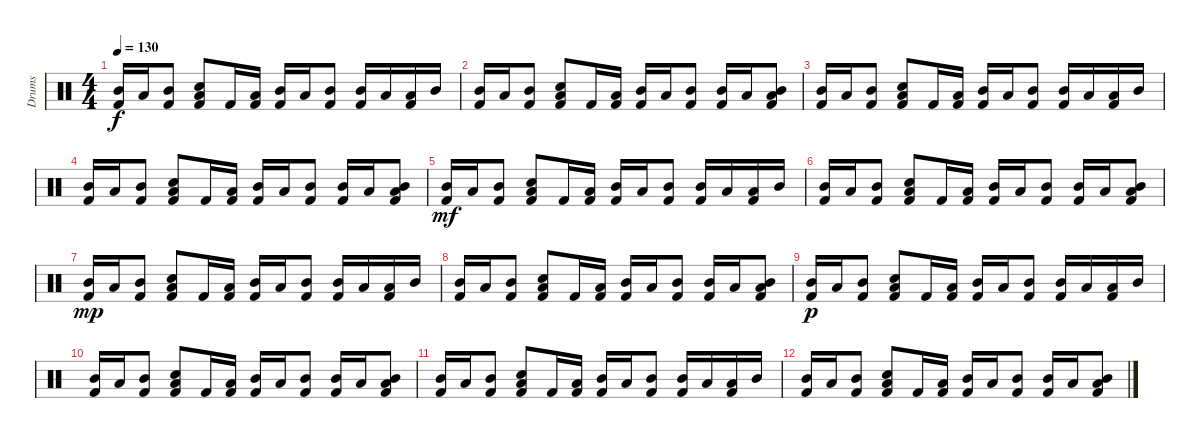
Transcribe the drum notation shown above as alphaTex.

\track ("Drums" "Drums") {instrument percussion}
\staff {score}
\articulation defaults
\ts (4 4)
\tempo 130
\clef neutral
\ks c
("Mid Tom (hit)" "Kick (hit) 2").16{dy f} "Low Tom (hit)".16 ("Mid Tom (hit)" "Kick (hit) 2").8 ("Electric Snare (hit)" "Low Floor Tom (hit)" "Kick (hit) 2").8 "Kick (hit) 2".16 ("Low Floor Tom (hit)" "Kick (hit) 2").16 ("Mid Tom (hit)" "Kick (hit) 2").16 "Low Tom (hit)".16 ("Mid Tom (hit)" "Kick (hit) 2").8 ("Mid Tom (hit)" "Kick (hit) 2").16 "Low Tom (hit)".16 ("Low Floor Tom (hit)" "Kick (hit) 2").16 "Mid Tom (hit)".16 |
("Mid Tom (hit)" "Kick (hit) 2").16 "Low Tom (hit)".16 ("Mid Tom (hit)" "Kick (hit) 2").8 ("Electric Snare (hit)" "Low Floor Tom (hit)" "Kick (hit) 2").8 "Kick (hit) 2".16 ("Low Floor Tom (hit)" "Kick (hit) 2").16 ("Mid Tom (hit)" "Kick (hit) 2").16 "Low Tom (hit)".16 ("Mid Tom (hit)" "Kick (hit) 2").8 ("Mid Tom (hit)" "Kick (hit) 2").16 "Low Tom (hit)".16 ("Mid Tom (hit)" "Low Floor Tom (hit)" "Kick (hit) 2").8 |
("Mid Tom (hit)" "Kick (hit) 2").16 "Low Tom (hit)".16 ("Mid Tom (hit)" "Kick (hit) 2").8 ("Electric Snare (hit)" "Low Floor Tom (hit)" "Kick (hit) 2").8 "Kick (hit) 2".16 ("Low Floor Tom (hit)" "Kick (hit) 2").16 ("Mid Tom (hit)" "Kick (hit) 2").16 "Low Tom (hit)".16 ("Mid Tom (hit)" "Kick (hit) 2").8 ("Mid Tom (hit)" "Kick (hit) 2").16 "Low Tom (hit)".16 ("Low Floor Tom (hit)" "Kick (hit) 2").16 "Mid Tom (hit)".16 |
("Mid Tom (hit)" "Kick (hit) 2").16 "Low Tom (hit)".16 ("Mid Tom (hit)" "Kick (hit) 2").8 ("Electric Snare (hit)" "Low Floor Tom (hit)" "Kick (hit) 2").8 "Kick (hit) 2".16 ("Low Floor Tom (hit)" "Kick (hit) 2").16 ("Mid Tom (hit)" "Kick (hit) 2").16 "Low Tom (hit)".16 ("Mid Tom (hit)" "Kick (hit) 2").8 ("Mid Tom (hit)" "Kick (hit) 2").16 "Low Tom (hit)".16 ("Mid Tom (hit)" "Low Floor Tom (hit)" "Kick (hit) 2").8 |
("Mid Tom (hit)" "Kick (hit) 2").16{dy mf} "Low Tom (hit)".16 ("Mid Tom (hit)" "Kick (hit) 2").8 ("Electric Snare (hit)" "Low Floor Tom (hit)" "Kick (hit) 2").8 "Kick (hit) 2".16 ("Low Floor Tom (hit)" "Kick (hit) 2").16 ("Mid Tom (hit)" "Kick (hit) 2").16 "Low Tom (hit)".16 ("Mid Tom (hit)" "Kick (hit) 2").8 ("Mid Tom (hit)" "Kick (hit) 2").16 "Low Tom (hit)".16 ("Low Floor Tom (hit)" "Kick (hit) 2").16 "Mid Tom (hit)".16 |
("Mid Tom (hit)" "Kick (hit) 2").16 "Low Tom (hit)".16 ("Mid Tom (hit)" "Kick (hit) 2").8 ("Electric Snare (hit)" "Low Floor Tom (hit)" "Kick (hit) 2").8 "Kick (hit) 2".16 ("Low Floor Tom (hit)" "Kick (hit) 2").16 ("Mid Tom (hit)" "Kick (hit) 2").16 "Low Tom (hit)".16 ("Mid Tom (hit)" "Kick (hit) 2").8 ("Mid Tom (hit)" "Kick (hit) 2").16 "Low Tom (hit)".16 ("Mid Tom (hit)" "Low Floor Tom (hit)" "Kick (hit) 2").8 |
("Mid Tom (hit)" "Kick (hit) 2").16{dy mp} "Low Tom (hit)".16 ("Mid Tom (hit)" "Kick (hit) 2").8 ("Electric Snare (hit)" "Low Floor Tom (hit)" "Kick (hit) 2").8 "Kick (hit) 2".16 ("Low Floor Tom (hit)" "Kick (hit) 2").16 ("Mid Tom (hit)" "Kick (hit) 2").16 "Low Tom (hit)".16 ("Mid Tom (hit)" "Kick (hit) 2").8 ("Mid Tom (hit)" "Kick (hit) 2").16 "Low Tom (hit)".16 ("Low Floor Tom (hit)" "Kick (hit) 2").16 "Mid Tom (hit)".16 |
("Mid Tom (hit)" "Kick (hit) 2").16 "Low Tom (hit)".16 ("Mid Tom (hit)" "Kick (hit) 2").8 ("Electric Snare (hit)" "Low Floor Tom (hit)" "Kick (hit) 2").8 "Kick (hit) 2".16 ("Low Floor Tom (hit)" "Kick (hit) 2").16 ("Mid Tom (hit)" "Kick (hit) 2").16 "Low Tom (hit)".16 ("Mid Tom (hit)" "Kick (hit) 2").8 ("Mid Tom (hit)" "Kick (hit) 2").16 "Low Tom (hit)".16 ("Mid Tom (hit)" "Low Floor Tom (hit)" "Kick (hit) 2").8 |
("Mid Tom (hit)" "Kick (hit) 2").16{dy p} "Low Tom (hit)".16 ("Mid Tom (hit)" "Kick (hit) 2").8 ("Electric Snare (hit)" "Low Floor Tom (hit)" "Kick (hit) 2").8 "Kick (hit) 2".16 ("Low Floor Tom (hit)" "Kick (hit) 2").16 ("Mid Tom (hit)" "Kick (hit) 2").16 "Low Tom (hit)".16 ("Mid Tom (hit)" "Kick (hit) 2").8 ("Mid Tom (hit)" "Kick (hit) 2").16 "Low Tom (hit)".16 ("Low Floor Tom (hit)" "Kick (hit) 2").16 "Mid Tom (hit)".16 |
("Mid Tom (hit)" "Kick (hit) 2").16 "Low Tom (hit)".16 ("Mid Tom (hit)" "Kick (hit) 2").8 ("Electric Snare (hit)" "Low Floor Tom (hit)" "Kick (hit) 2").8 "Kick (hit) 2".16 ("Low Floor Tom (hit)" "Kick (hit) 2").16 ("Mid Tom (hit)" "Kick (hit) 2").16 "Low Tom (hit)".16 ("Mid Tom (hit)" "Kick (hit) 2").8 ("Mid Tom (hit)" "Kick (hit) 2").16 "Low Tom (hit)".16 ("Mid Tom (hit)" "Low Floor Tom (hit)" "Kick (hit) 2").8 |
("Mid Tom (hit)" "Kick (hit) 2").16 "Low Tom (hit)".16 ("Mid Tom (hit)" "Kick (hit) 2").8 ("Electric Snare (hit)" "Low Floor Tom (hit)" "Kick (hit) 2").8 "Kick (hit) 2".16 ("Low Floor Tom (hit)" "Kick (hit) 2").16 ("Mid Tom (hit)" "Kick (hit) 2").16 "Low Tom (hit)".16 ("Mid Tom (hit)" "Kick (hit) 2").8 ("Mid Tom (hit)" "Kick (hit) 2").16 "Low Tom (hit)".16 ("Low Floor Tom (hit)" "Kick (hit) 2").16 "Mid Tom (hit)".16 |
("Mid Tom (hit)" "Kick (hit) 2").16 "Low Tom (hit)".16 ("Mid Tom (hit)" "Kick (hit) 2").8 ("Electric Snare (hit)" "Low Floor Tom (hit)" "Kick (hit) 2").8 "Kick (hit) 2".16 ("Low Floor Tom (hit)" "Kick (hit) 2").16 ("Mid Tom (hit)" "Kick (hit) 2").16 "Low Tom (hit)".16 ("Mid Tom (hit)" "Kick (hit) 2").8 ("Mid Tom (hit)" "Kick (hit) 2").16 "Low Tom (hit)".16 ("Mid Tom (hit)" "Low Floor Tom (hit)" "Kick (hit) 2").8
